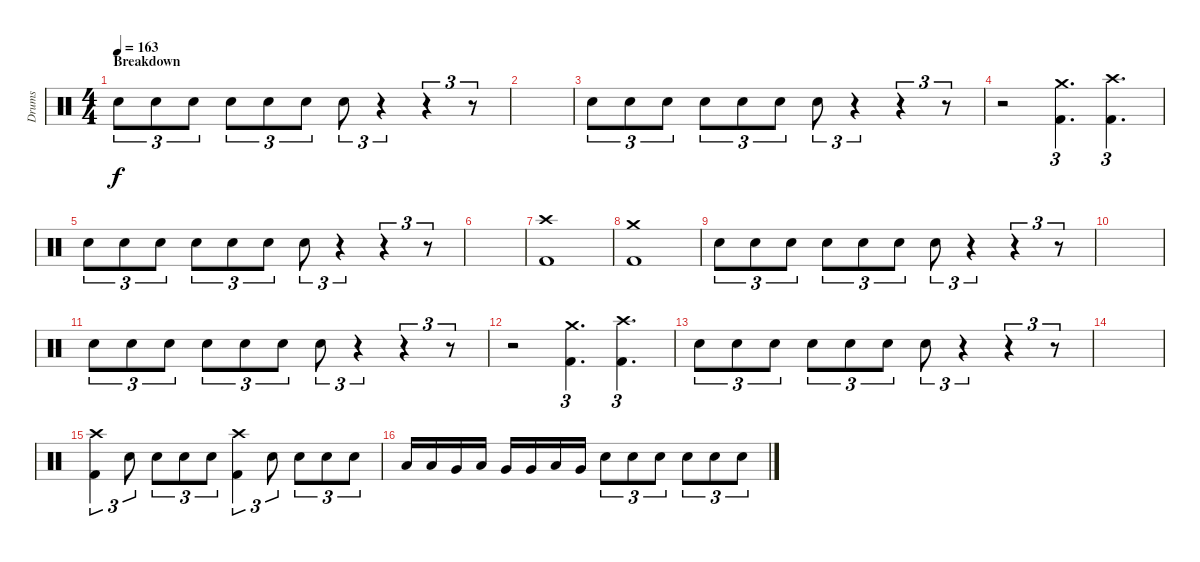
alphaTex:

\track ("Drums" "Drums") {instrument percussion}
\staff {score}
\articulation defaults
\ts (4 4)
\section ("" "Breakdown")
\tempo 163
\clef neutral
\ks c "Electric Snare (hit)".8{tu (3 2) dy f} "Electric Snare (hit)".8{tu (3 2)} "Electric Snare (hit)".8{tu (3 2)} "Electric Snare (hit)".8{tu (3 2)} "Electric Snare (hit)".8{tu (3 2)} "Electric Snare (hit)".8{tu (3 2)} "Electric Snare (hit)".8{tu (3 2)}
r.4{tu (3 2)} r.4{tu (3 2)} r.8{tu (3 2)} |
|
"Electric Snare (hit)".8{tu (3 2)} "Electric Snare (hit)".8{tu (3 2)} "Electric Snare (hit)".8{tu (3 2)} "Electric Snare (hit)".8{tu (3 2)} "Electric Snare (hit)".8{tu (3 2)} "Electric Snare (hit)".8{tu (3 2)} "Electric Snare (hit)".8{tu (3 2)} r.4{tu (3 2)} r.4{tu (3 2)} r.8{tu (3 2)} |
r.2 ("Crash medium (hit)" "Kick (hit) 2").4{d tu (3 2)} ("Crash high (hit)" "Kick (hit) 2").4{d tu (3 2)} |
"Electric Snare (hit)".8{tu (3 2)} "Electric Snare (hit)".8{tu (3 2)} "Electric Snare (hit)".8{tu (3 2)} "Electric Snare (hit)".8{tu (3 2)} "Electric Snare (hit)".8{tu (3 2)} "Electric Snare (hit)".8{tu (3 2)} "Electric Snare (hit)".8{tu (3 2)} r.4{tu (3 2)} r.4{tu (3 2)} r.8{tu (3 2)} |
|
("Crash high (hit)" "Kick (hit) 2").1 |
("Crash medium (hit)" "Kick (hit) 2").1 |
"Electric Snare (hit)".8{tu (3 2)} "Electric Snare (hit)".8{tu (3 2)} "Electric Snare (hit)".8{tu (3 2)} "Electric Snare (hit)".8{tu (3 2)} "Electric Snare (hit)".8{tu (3 2)} "Electric Snare (hit)".8{tu (3 2)} "Electric Snare (hit)".8{tu (3 2)} r.4{tu (3 2)} r.4{tu (3 2)} r.8{tu (3 2)} |
|
"Electric Snare (hit)".8{tu (3 2)} "Electric Snare (hit)".8{tu (3 2)} "Electric Snare (hit)".8{tu (3 2)} "Electric Snare (hit)".8{tu (3 2)} "Electric Snare (hit)".8{tu (3 2)} "Electric Snare (hit)".8{tu (3 2)} "Electric Snare (hit)".8{tu (3 2)} r.4{tu (3 2)} r.4{tu (3 2)} r.8{tu (3 2)} |
r.2 ("Crash medium (hit)" "Kick (hit) 2").4{d tu (3 2)} ("Crash high (hit)" "Kick (hit) 2").4{d tu (3 2)} |
"Electric Snare (hit)".8{tu (3 2)} "Electric Snare (hit)".8{tu (3 2)} "Electric Snare (hit)".8{tu (3 2)} "Electric Snare (hit)".8{tu (3 2)} "Electric Snare (hit)".8{tu (3 2)} "Electric Snare (hit)".8{tu (3 2)} "Electric Snare (hit)".8{tu (3 2)} r.4{tu (3 2)} r.4{tu (3 2)} r.8{tu (3 2)} |
|
("Crash high (hit)" "Kick (hit) 2").4{tu (3 2)} "Electric Snare (hit)".8{tu (3 2)} "Electric Snare (hit)".8{tu (3 2)} "Electric Snare (hit)".8{tu (3 2)} "Electric Snare (hit)".8{tu (3 2)} ("Crash high (hit)" "Kick (hit) 2").4{tu (3 2)} "Electric Snare (hit)".8{tu (3 2)} "Electric Snare (hit)".8{tu (3 2)} "Electric Snare (hit)".8{tu (3 2)} "Electric Snare (hit)".8{tu (3 2)} |
"Low Tom (hit)".16 "Low Tom (hit)".16 "Very Low Tom (hit)".16 "Low Floor Tom (hit)".16 "Very Low Tom (hit)".16 "Very Low Tom (hit)".16 "Low Floor Tom (hit)".16 "Very Low Tom (hit)".16 "Electric Snare (hit)".8{tu (3 2)} "Electric Snare (hit)".8{tu (3 2)} "Electric Snare (hit)".8{tu (3 2)} "Electric Snare (hit)".8{tu (3 2)} "Electric Snare (hit)".8{tu (3 2)} "Electric Snare (hit)".8{tu (3 2)}
